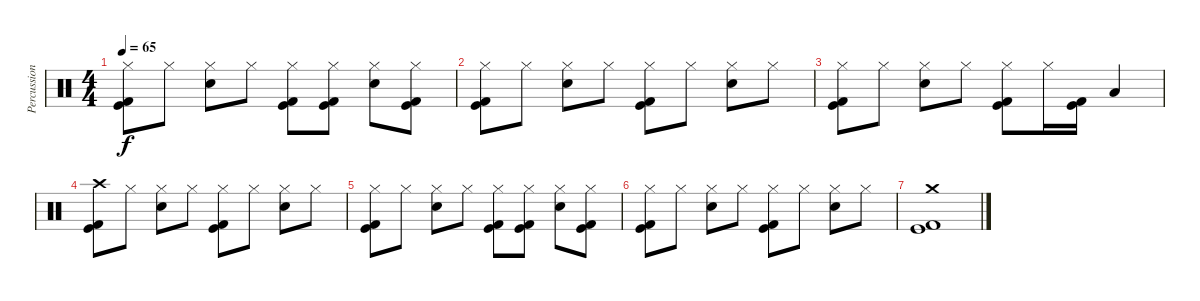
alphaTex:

\track ("Percussion" "Percussion") {instrument percussion}
\staff {score}
\articulation defaults
\ts (4 4)
\tempo 65
\clef neutral
\ks c
("Hi-Hat (closed)" "Kick (hit)" "Kick (hit) 2").8{dy f} "Hi-Hat (closed)".8 ("Hi-Hat (closed)" "Electric Snare (hit)").8 "Hi-Hat (closed)".8 ("Hi-Hat (closed)" "Kick (hit)" "Kick (hit) 2").8 ("Hi-Hat (closed)" "Kick (hit)" "Kick (hit) 2").8 ("Hi-Hat (closed)" "Electric Snare (hit)").8 ("Hi-Hat (closed)" "Kick (hit)" "Kick (hit) 2").8 |
("Hi-Hat (closed)" "Kick (hit)" "Kick (hit) 2").8 "Hi-Hat (closed)".8 ("Hi-Hat (closed)" "Electric Snare (hit)").8 "Hi-Hat (closed)".8 ("Hi-Hat (closed)" "Kick (hit)" "Kick (hit) 2").8 "Hi-Hat (closed)".8 ("Hi-Hat (closed)" "Electric Snare (hit)").8 "Hi-Hat (closed)".8 |
("Hi-Hat (closed)" "Kick (hit)" "Kick (hit) 2").8 "Hi-Hat (closed)".8 ("Hi-Hat (closed)" "Electric Snare (hit)").8 "Hi-Hat (closed)".8 ("Hi-Hat (closed)" "Kick (hit)" "Kick (hit) 2").8 "Hi-Hat (closed)".16 ("Kick (hit)" "Kick (hit) 2").16 "Low Tom (hit)".4 |
("Crash high (hit)" "Kick (hit)" "Kick (hit) 2").8 "Hi-Hat (closed)".8 ("Hi-Hat (closed)" "Electric Snare (hit)").8 "Hi-Hat (closed)".8 ("Hi-Hat (closed)" "Kick (hit)" "Kick (hit) 2").8 "Hi-Hat (closed)".8 ("Hi-Hat (closed)" "Electric Snare (hit)").8 "Hi-Hat (closed)".8 |
("Hi-Hat (closed)" "Kick (hit)" "Kick (hit) 2").8 "Hi-Hat (closed)".8 ("Hi-Hat (closed)" "Electric Snare (hit)").8 "Hi-Hat (closed)".8 ("Hi-Hat (closed)" "Kick (hit)" "Kick (hit) 2").8 ("Hi-Hat (closed)" "Kick (hit)" "Kick (hit) 2").8 ("Hi-Hat (closed)" "Electric Snare (hit)").8 ("Hi-Hat (closed)" "Kick (hit)" "Kick (hit) 2").8 |
("Hi-Hat (closed)" "Kick (hit)" "Kick (hit) 2").8 "Hi-Hat (closed)".8 ("Hi-Hat (closed)" "Electric Snare (hit)").8 "Hi-Hat (closed)".8 ("Hi-Hat (closed)" "Kick (hit)" "Kick (hit) 2").8 "Hi-Hat (closed)".8 ("Hi-Hat (closed)" "Electric Snare (hit)").8 "Hi-Hat (closed)".8 |
("Crash medium (hit)" "Kick (hit)" "Kick (hit) 2").1
